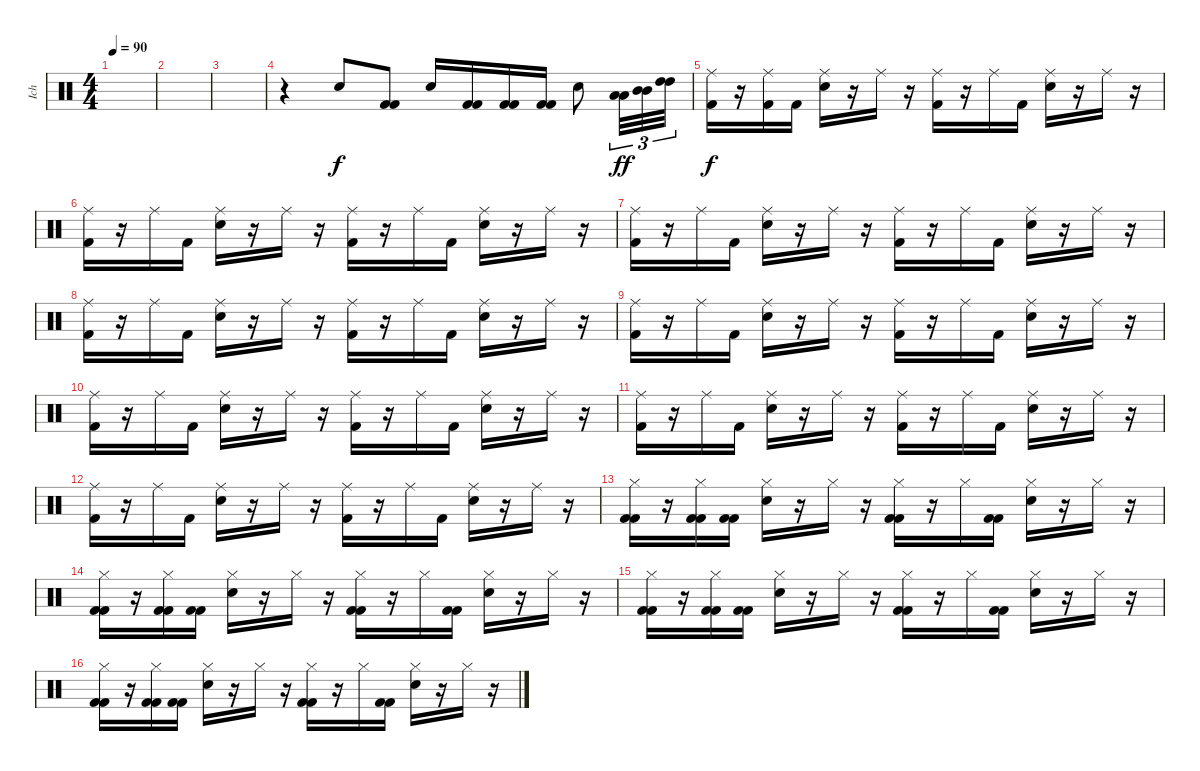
\track ("Ich" "Ich") {instrument percussion}
\staff {score}
\articulation defaults
\ts (4 4)
\tempo 90
\clef neutral
\ks c
|
|
|
r.4 "Snare (hit) 2".8 ("Kick (hit) 2" "Kick (hit) 2").8 "Snare (hit) 2".16 ("Kick (hit) 2" "Kick (hit) 2").16 ("Kick (hit) 2" "Kick (hit) 2").16 ("Kick (hit) 2" "Kick (hit) 2").16 "Snare (hit) 2".8 ("Low Tom (hit)" "Low Tom (hit)").32{tu (3 2) dy ff} ("Mid Tom (hit)" "Mid Tom (hit)").32{tu (3 2)} ("High Tom (hit)" "High Tom (hit)").32{tu (3 2)} |
("Ride (middle)" "Kick (hit) 2").16{dy f} r.16 ("Ride (middle)" "Kick (hit) 2").16 "Kick (hit) 2".16 ("Ride (middle)" "Snare (hit) 2").16 r.16 "Ride (middle)".16 r.16 ("Ride (middle)" "Kick (hit) 2").16 r.16 "Ride (middle)".16 "Kick (hit) 2".16 ("Ride (middle)" "Snare (hit) 2").16 r.16 "Ride (middle)".16 r.16 |
("Ride (middle)" "Kick (hit) 2").16 r.16 "Ride (middle)".16 "Kick (hit) 2".16 ("Ride (middle)" "Snare (hit) 2").16 r.16 "Ride (middle)".16 r.16 ("Ride (middle)" "Kick (hit) 2").16 r.16 "Ride (middle)".16 "Kick (hit) 2".16 ("Ride (middle)" "Snare (hit) 2").16 r.16 "Ride (middle)".16 r.16 |
("Ride (middle)" "Kick (hit) 2").16 r.16 "Ride (middle)".16 "Kick (hit) 2".16 ("Ride (middle)" "Snare (hit) 2").16 r.16 "Ride (middle)".16 r.16 ("Ride (middle)" "Kick (hit) 2").16 r.16 "Ride (middle)".16 "Kick (hit) 2".16 ("Ride (middle)" "Snare (hit) 2").16 r.16 "Ride (middle)".16 r.16 |
("Ride (middle)" "Kick (hit) 2").16 r.16 "Ride (middle)".16 "Kick (hit) 2".16 ("Ride (middle)" "Snare (hit) 2").16 r.16 "Ride (middle)".16 r.16 ("Ride (middle)" "Kick (hit) 2").16 r.16 "Ride (middle)".16 "Kick (hit) 2".16 ("Ride (middle)" "Snare (hit) 2").16 r.16 "Ride (middle)".16 r.16 |
("Ride (middle)" "Kick (hit) 2").16 r.16 "Ride (middle)".16 "Kick (hit) 2".16 ("Ride (middle)" "Snare (hit) 2").16 r.16 "Ride (middle)".16 r.16 ("Ride (middle)" "Kick (hit) 2").16 r.16 "Ride (middle)".16 "Kick (hit) 2".16 ("Ride (middle)" "Snare (hit) 2").16 r.16 "Ride (middle)".16 r.16 |
("Ride (middle)" "Kick (hit) 2").16 r.16 "Ride (middle)".16 "Kick (hit) 2".16 ("Ride (middle)" "Snare (hit) 2").16 r.16 "Ride (middle)".16 r.16 ("Ride (middle)" "Kick (hit) 2").16 r.16 "Ride (middle)".16 "Kick (hit) 2".16 ("Ride (middle)" "Snare (hit) 2").16 r.16 "Ride (middle)".16 r.16 |
("Ride (middle)" "Kick (hit) 2").16 r.16 "Ride (middle)".16 "Kick (hit) 2".16 ("Ride (middle)" "Snare (hit) 2").16 r.16 "Ride (middle)".16 r.16 ("Ride (middle)" "Kick (hit) 2").16 r.16 "Ride (middle)".16 "Kick (hit) 2".16 ("Ride (middle)" "Snare (hit) 2").16 r.16 "Ride (middle)".16 r.16 |
("Ride (middle)" "Kick (hit) 2").16 r.16 "Ride (middle)".16 "Kick (hit) 2".16 ("Ride (middle)" "Snare (hit) 2").16 r.16 "Ride (middle)".16 r.16 ("Ride (middle)" "Kick (hit) 2").16 r.16 "Ride (middle)".16 "Kick (hit) 2".16 ("Ride (middle)" "Snare (hit) 2").16 r.16 "Ride (middle)".16 r.16 |
("Hi-Hat (closed)" "Kick (hit) 2" "Kick (hit) 2").16 r.16 ("Hi-Hat (closed)" "Kick (hit) 2" "Kick (hit) 2").16 ("Kick (hit) 2" "Kick (hit) 2").16 ("Hi-Hat (closed)" "Snare (hit) 2").16 r.16 "Hi-Hat (closed)".16 r.16 ("Hi-Hat (closed)" "Kick (hit) 2" "Kick (hit) 2").16 r.16 "Hi-Hat (closed)".16 ("Kick (hit) 2" "Kick (hit) 2").16 ("Hi-Hat (closed)" "Snare (hit) 2").16 r.16 "Hi-Hat (closed)".16 r.16 |
("Hi-Hat (closed)" "Kick (hit) 2" "Kick (hit) 2").16 r.16 ("Hi-Hat (closed)" "Kick (hit) 2" "Kick (hit) 2").16 ("Kick (hit) 2" "Kick (hit) 2").16 ("Hi-Hat (closed)" "Snare (hit) 2").16 r.16 "Hi-Hat (closed)".16 r.16 ("Hi-Hat (closed)" "Kick (hit) 2" "Kick (hit) 2").16 r.16 "Hi-Hat (closed)".16 ("Kick (hit) 2" "Kick (hit) 2").16 ("Hi-Hat (closed)" "Snare (hit) 2").16 r.16 "Hi-Hat (closed)".16 r.16 |
("Hi-Hat (closed)" "Kick (hit) 2" "Kick (hit) 2").16 r.16 ("Hi-Hat (closed)" "Kick (hit) 2" "Kick (hit) 2").16 ("Kick (hit) 2" "Kick (hit) 2").16 ("Hi-Hat (closed)" "Snare (hit) 2").16 r.16 "Hi-Hat (closed)".16 r.16 ("Hi-Hat (closed)" "Kick (hit) 2" "Kick (hit) 2").16 r.16 "Hi-Hat (closed)".16 ("Kick (hit) 2" "Kick (hit) 2").16 ("Hi-Hat (closed)" "Snare (hit) 2").16 r.16 "Hi-Hat (closed)".16 r.16 |
("Hi-Hat (closed)" "Kick (hit) 2" "Kick (hit) 2").16 r.16 ("Hi-Hat (closed)" "Kick (hit) 2" "Kick (hit) 2").16 ("Kick (hit) 2" "Kick (hit) 2").16 ("Hi-Hat (closed)" "Snare (hit) 2").16 r.16 "Hi-Hat (closed)".16 r.16 ("Hi-Hat (closed)" "Kick (hit) 2" "Kick (hit) 2").16 r.16 "Hi-Hat (closed)".16 ("Kick (hit) 2" "Kick (hit) 2").16 ("Hi-Hat (closed)" "Snare (hit) 2").16 r.16 "Hi-Hat (closed)".16 r.16
